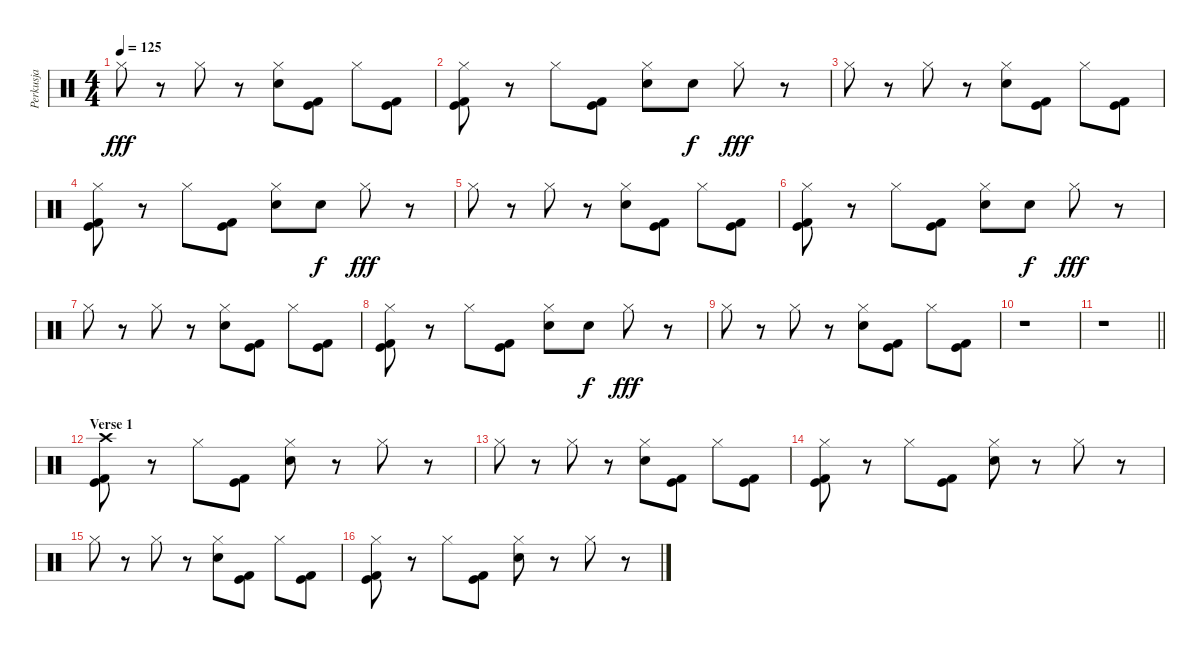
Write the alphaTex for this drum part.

\track ("Perkusja" "Perkusja") {instrument percussion}
\staff {score}
\articulation defaults
\ts (4 4)
\tempo 125
\clef neutral
\ks c "Hi-Hat (closed)".8{dy fff}
r.8 "Hi-Hat (closed)".8 r.8 ("Hi-Hat (closed)" "Electric Snare (hit)").8 ("Kick (hit)" "Kick (hit) 2").8 "Hi-Hat (closed)".8 ("Kick (hit)" "Kick (hit) 2").8 |
("Hi-Hat (closed)" "Kick (hit)" "Kick (hit) 2").8 r.8 "Hi-Hat (closed)".8 ("Kick (hit)" "Kick (hit) 2").8 ("Hi-Hat (closed)" "Electric Snare (hit)").8 "Electric Snare (hit)".8{dy f} "Hi-Hat (closed)".8{dy fff} r.8 |
"Hi-Hat (closed)".8 r.8 "Hi-Hat (closed)".8 r.8 ("Hi-Hat (closed)" "Electric Snare (hit)").8 ("Kick (hit)" "Kick (hit) 2").8 "Hi-Hat (closed)".8 ("Kick (hit)" "Kick (hit) 2").8 |
("Hi-Hat (closed)" "Kick (hit)" "Kick (hit) 2").8 r.8 "Hi-Hat (closed)".8 ("Kick (hit)" "Kick (hit) 2").8 ("Hi-Hat (closed)" "Electric Snare (hit)").8 "Electric Snare (hit)".8{dy f} "Hi-Hat (closed)".8{dy fff} r.8 |
"Hi-Hat (closed)".8 r.8 "Hi-Hat (closed)".8 r.8 ("Hi-Hat (closed)" "Electric Snare (hit)").8 ("Kick (hit)" "Kick (hit) 2").8 "Hi-Hat (closed)".8 ("Kick (hit)" "Kick (hit) 2").8 |
("Hi-Hat (closed)" "Kick (hit)" "Kick (hit) 2").8 r.8 "Hi-Hat (closed)".8 ("Kick (hit)" "Kick (hit) 2").8 ("Hi-Hat (closed)" "Electric Snare (hit)").8 "Electric Snare (hit)".8{dy f} "Hi-Hat (closed)".8{dy fff} r.8 |
"Hi-Hat (closed)".8 r.8 "Hi-Hat (closed)".8 r.8 ("Hi-Hat (closed)" "Electric Snare (hit)").8 ("Kick (hit)" "Kick (hit) 2").8 "Hi-Hat (closed)".8 ("Kick (hit)" "Kick (hit) 2").8 |
("Hi-Hat (closed)" "Kick (hit)" "Kick (hit) 2").8 r.8 "Hi-Hat (closed)".8 ("Kick (hit)" "Kick (hit) 2").8 ("Hi-Hat (closed)" "Electric Snare (hit)").8 "Electric Snare (hit)".8{dy f} "Hi-Hat (closed)".8{dy fff} r.8 |
"Hi-Hat (closed)".8 r.8 "Hi-Hat (closed)".8 r.8 ("Hi-Hat (closed)" "Electric Snare (hit)").8 ("Kick (hit)" "Kick (hit) 2").8 "Hi-Hat (closed)".8 ("Kick (hit)" "Kick (hit) 2").8 |
r.1 |
\barLineRight lightlight
r.1 |
\section ("" "Verse 1")
("Crash high (hit)" "Kick (hit)" "Kick (hit) 2").8 r.8 "Hi-Hat (closed)".8 ("Kick (hit)" "Kick (hit) 2").8 ("Hi-Hat (closed)" "Electric Snare (hit)").8 r.8 "Hi-Hat (closed)".8 r.8 |
"Hi-Hat (closed)".8 r.8 "Hi-Hat (closed)".8 r.8 ("Hi-Hat (closed)" "Electric Snare (hit)").8 ("Kick (hit)" "Kick (hit) 2").8 "Hi-Hat (closed)".8 ("Kick (hit)" "Kick (hit) 2").8 |
("Hi-Hat (closed)" "Kick (hit)" "Kick (hit) 2").8 r.8 "Hi-Hat (closed)".8 ("Kick (hit)" "Kick (hit) 2").8 ("Hi-Hat (closed)" "Electric Snare (hit)").8 r.8 "Hi-Hat (closed)".8 r.8 |
"Hi-Hat (closed)".8 r.8 "Hi-Hat (closed)".8 r.8 ("Hi-Hat (closed)" "Electric Snare (hit)").8 ("Kick (hit)" "Kick (hit) 2").8 "Hi-Hat (closed)".8 ("Kick (hit)" "Kick (hit) 2").8 |
("Hi-Hat (closed)" "Kick (hit)" "Kick (hit) 2").8 r.8 "Hi-Hat (closed)".8 ("Kick (hit)" "Kick (hit) 2").8 ("Hi-Hat (closed)" "Electric Snare (hit)").8 r.8 "Hi-Hat (closed)".8 r.8
